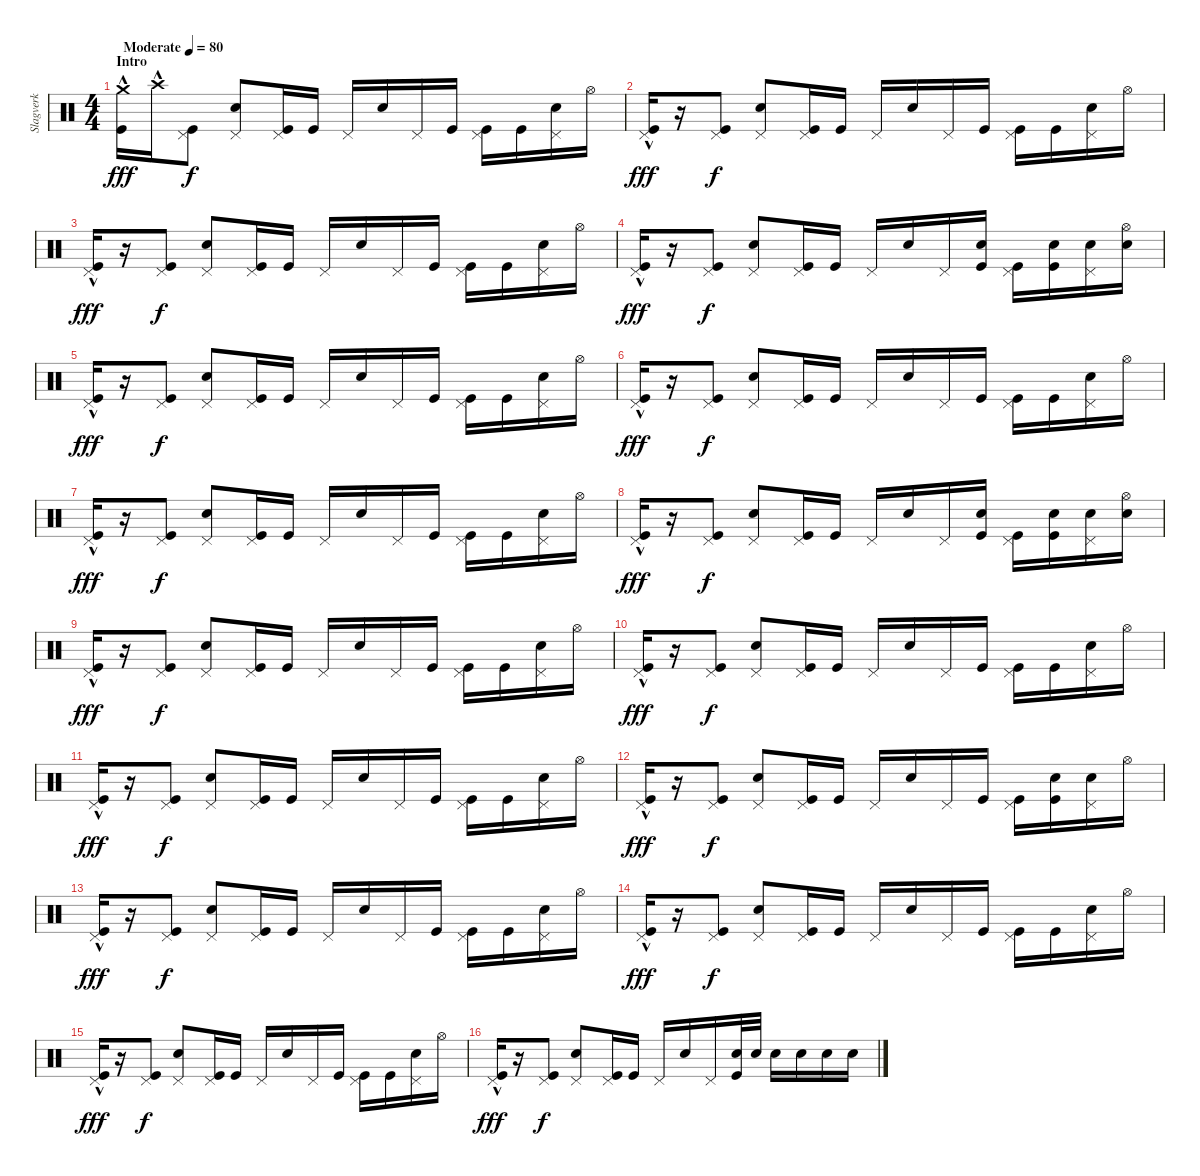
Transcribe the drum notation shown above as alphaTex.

\track ("Slagverk" "Slagverk") {instrument percussion}
\staff {score}
\articulation defaults
\ts (4 4)
\section ("" "Intro")
\tempo (80 "Moderate")
\clef neutral
\ks c
("Crash medium (hit)"{hac} "Kick (hit)").16{dy fff} "Crash high (hit)"{hac}.16 ("Pedal Hi-Hat (hit)" "Kick (hit)").8{dy f} ("Pedal Hi-Hat (hit)" "Snare (hit) 2").8 ("Pedal Hi-Hat (hit)" "Kick (hit)").16 "Kick (hit)".16 "Pedal Hi-Hat (hit)".16 "Snare (hit) 2".16 "Pedal Hi-Hat (hit)".16 "Kick (hit)".16 ("Pedal Hi-Hat (hit)" "Kick (hit)").16 "Kick (hit)".16 ("Pedal Hi-Hat (hit)" "Snare (hit) 2").16 "Hi-Hat (open)".16 |
("Pedal Hi-Hat (hit)"{hac} "Kick (hit)").16{dy fff} r.16 ("Pedal Hi-Hat (hit)" "Kick (hit)").8{dy f} ("Pedal Hi-Hat (hit)" "Snare (hit) 2").8 ("Pedal Hi-Hat (hit)" "Kick (hit)").16 "Kick (hit)".16 "Pedal Hi-Hat (hit)".16 "Snare (hit) 2".16 "Pedal Hi-Hat (hit)".16 "Kick (hit)".16 ("Pedal Hi-Hat (hit)" "Kick (hit)").16 "Kick (hit)".16 ("Pedal Hi-Hat (hit)" "Snare (hit) 2").16 "Hi-Hat (open)".16 |
("Pedal Hi-Hat (hit)"{hac} "Kick (hit)").16{dy fff} r.16 ("Pedal Hi-Hat (hit)" "Kick (hit)").8{dy f} ("Pedal Hi-Hat (hit)" "Snare (hit) 2").8 ("Pedal Hi-Hat (hit)" "Kick (hit)").16 "Kick (hit)".16 "Pedal Hi-Hat (hit)".16 "Snare (hit) 2".16 "Pedal Hi-Hat (hit)".16 "Kick (hit)".16 ("Pedal Hi-Hat (hit)" "Kick (hit)").16 "Kick (hit)".16 ("Pedal Hi-Hat (hit)" "Snare (hit) 2").16 "Hi-Hat (open)".16 |
("Pedal Hi-Hat (hit)"{hac} "Kick (hit)").16{dy fff} r.16 ("Pedal Hi-Hat (hit)" "Kick (hit)").8{dy f} ("Pedal Hi-Hat (hit)" "Snare (hit) 2").8 ("Pedal Hi-Hat (hit)" "Kick (hit)").16 "Kick (hit)".16 "Pedal Hi-Hat (hit)".16 "Snare (hit) 2".16 "Pedal Hi-Hat (hit)".16 ("Snare (hit) 2" "Kick (hit)").16 ("Pedal Hi-Hat (hit)" "Kick (hit)").16 ("Snare (hit) 2" "Kick (hit)").16 ("Pedal Hi-Hat (hit)" "Snare (hit) 2").16 ("Hi-Hat (open)" "Snare (hit) 2").16 |
("Pedal Hi-Hat (hit)"{hac} "Kick (hit)").16{dy fff} r.16 ("Pedal Hi-Hat (hit)" "Kick (hit)").8{dy f} ("Pedal Hi-Hat (hit)" "Snare (hit) 2").8 ("Pedal Hi-Hat (hit)" "Kick (hit)").16 "Kick (hit)".16 "Pedal Hi-Hat (hit)".16 "Snare (hit) 2".16 "Pedal Hi-Hat (hit)".16 "Kick (hit)".16 ("Pedal Hi-Hat (hit)" "Kick (hit)").16 "Kick (hit)".16 ("Pedal Hi-Hat (hit)" "Snare (hit) 2").16 "Hi-Hat (open)".16 |
("Pedal Hi-Hat (hit)"{hac} "Kick (hit)").16{dy fff} r.16 ("Pedal Hi-Hat (hit)" "Kick (hit)").8{dy f} ("Pedal Hi-Hat (hit)" "Snare (hit) 2").8 ("Pedal Hi-Hat (hit)" "Kick (hit)").16 "Kick (hit)".16 "Pedal Hi-Hat (hit)".16 "Snare (hit) 2".16 "Pedal Hi-Hat (hit)".16 "Kick (hit)".16 ("Pedal Hi-Hat (hit)" "Kick (hit)").16 "Kick (hit)".16 ("Pedal Hi-Hat (hit)" "Snare (hit) 2").16 "Hi-Hat (open)".16 |
("Pedal Hi-Hat (hit)"{hac} "Kick (hit)").16{dy fff} r.16 ("Pedal Hi-Hat (hit)" "Kick (hit)").8{dy f} ("Pedal Hi-Hat (hit)" "Snare (hit) 2").8 ("Pedal Hi-Hat (hit)" "Kick (hit)").16 "Kick (hit)".16 "Pedal Hi-Hat (hit)".16 "Snare (hit) 2".16 "Pedal Hi-Hat (hit)".16 "Kick (hit)".16 ("Pedal Hi-Hat (hit)" "Kick (hit)").16 "Kick (hit)".16 ("Pedal Hi-Hat (hit)" "Snare (hit) 2").16 "Hi-Hat (open)".16 |
("Pedal Hi-Hat (hit)"{hac} "Kick (hit)").16{dy fff} r.16 ("Pedal Hi-Hat (hit)" "Kick (hit)").8{dy f} ("Pedal Hi-Hat (hit)" "Snare (hit) 2").8 ("Pedal Hi-Hat (hit)" "Kick (hit)").16 "Kick (hit)".16 "Pedal Hi-Hat (hit)".16 "Snare (hit) 2".16 "Pedal Hi-Hat (hit)".16 ("Snare (hit) 2" "Kick (hit)").16 ("Pedal Hi-Hat (hit)" "Kick (hit)").16 ("Snare (hit) 2" "Kick (hit)").16 ("Pedal Hi-Hat (hit)" "Snare (hit) 2").16 ("Hi-Hat (open)" "Snare (hit) 2").16 |
("Pedal Hi-Hat (hit)"{hac} "Kick (hit)").16{dy fff} r.16 ("Pedal Hi-Hat (hit)" "Kick (hit)").8{dy f} ("Pedal Hi-Hat (hit)" "Snare (hit) 2").8 ("Pedal Hi-Hat (hit)" "Kick (hit)").16 "Kick (hit)".16 "Pedal Hi-Hat (hit)".16 "Snare (hit) 2".16 "Pedal Hi-Hat (hit)".16 "Kick (hit)".16 ("Pedal Hi-Hat (hit)" "Kick (hit)").16 "Kick (hit)".16 ("Pedal Hi-Hat (hit)" "Snare (hit) 2").16 "Hi-Hat (open)".16 |
("Pedal Hi-Hat (hit)"{hac} "Kick (hit)").16{dy fff} r.16 ("Pedal Hi-Hat (hit)" "Kick (hit)").8{dy f} ("Pedal Hi-Hat (hit)" "Snare (hit) 2").8 ("Pedal Hi-Hat (hit)" "Kick (hit)").16 "Kick (hit)".16 "Pedal Hi-Hat (hit)".16 "Snare (hit) 2".16 "Pedal Hi-Hat (hit)".16 "Kick (hit)".16 ("Pedal Hi-Hat (hit)" "Kick (hit)").16 "Kick (hit)".16 ("Pedal Hi-Hat (hit)" "Snare (hit) 2").16 "Hi-Hat (open)".16 |
("Pedal Hi-Hat (hit)"{hac} "Kick (hit)").16{dy fff} r.16 ("Pedal Hi-Hat (hit)" "Kick (hit)").8{dy f} ("Pedal Hi-Hat (hit)" "Snare (hit) 2").8 ("Pedal Hi-Hat (hit)" "Kick (hit)").16 "Kick (hit)".16 "Pedal Hi-Hat (hit)".16 "Snare (hit) 2".16 "Pedal Hi-Hat (hit)".16 "Kick (hit)".16 ("Pedal Hi-Hat (hit)" "Kick (hit)").16 "Kick (hit)".16 ("Pedal Hi-Hat (hit)" "Snare (hit) 2").16 "Hi-Hat (open)".16 |
("Pedal Hi-Hat (hit)"{hac} "Kick (hit)").16{dy fff} r.16 ("Pedal Hi-Hat (hit)" "Kick (hit)").8{dy f} ("Pedal Hi-Hat (hit)" "Snare (hit) 2").8 ("Pedal Hi-Hat (hit)" "Kick (hit)").16 "Kick (hit)".16 "Pedal Hi-Hat (hit)".16 "Snare (hit) 2".16 "Pedal Hi-Hat (hit)".16 "Kick (hit)".16 ("Pedal Hi-Hat (hit)" "Kick (hit)").16 ("Snare (hit) 2" "Kick (hit)").16 ("Pedal Hi-Hat (hit)" "Snare (hit) 2").16 "Hi-Hat (open)".16 |
("Pedal Hi-Hat (hit)"{hac} "Kick (hit)").16{dy fff} r.16 ("Pedal Hi-Hat (hit)" "Kick (hit)").8{dy f} ("Pedal Hi-Hat (hit)" "Snare (hit) 2").8 ("Pedal Hi-Hat (hit)" "Kick (hit)").16 "Kick (hit)".16 "Pedal Hi-Hat (hit)".16 "Snare (hit) 2".16 "Pedal Hi-Hat (hit)".16 "Kick (hit)".16 ("Pedal Hi-Hat (hit)" "Kick (hit)").16 "Kick (hit)".16 ("Pedal Hi-Hat (hit)" "Snare (hit) 2").16 "Hi-Hat (open)".16 |
("Pedal Hi-Hat (hit)"{hac} "Kick (hit)").16{dy fff} r.16 ("Pedal Hi-Hat (hit)" "Kick (hit)").8{dy f} ("Pedal Hi-Hat (hit)" "Snare (hit) 2").8 ("Pedal Hi-Hat (hit)" "Kick (hit)").16 "Kick (hit)".16 "Pedal Hi-Hat (hit)".16 "Snare (hit) 2".16 "Pedal Hi-Hat (hit)".16 "Kick (hit)".16 ("Pedal Hi-Hat (hit)" "Kick (hit)").16 "Kick (hit)".16 ("Pedal Hi-Hat (hit)" "Snare (hit) 2").16 "Hi-Hat (open)".16 |
("Pedal Hi-Hat (hit)"{hac} "Kick (hit)").16{dy fff} r.16 ("Pedal Hi-Hat (hit)" "Kick (hit)").8{dy f} ("Pedal Hi-Hat (hit)" "Snare (hit) 2").8 ("Pedal Hi-Hat (hit)" "Kick (hit)").16 "Kick (hit)".16 "Pedal Hi-Hat (hit)".16 "Snare (hit) 2".16 "Pedal Hi-Hat (hit)".16 "Kick (hit)".16 ("Pedal Hi-Hat (hit)" "Kick (hit)").16 "Kick (hit)".16 ("Pedal Hi-Hat (hit)" "Snare (hit) 2").16 "Hi-Hat (open)".16 |
("Pedal Hi-Hat (hit)"{hac} "Kick (hit)").16{dy fff} r.16 ("Pedal Hi-Hat (hit)" "Kick (hit)").8{dy f} ("Pedal Hi-Hat (hit)" "Snare (hit) 2").8 ("Pedal Hi-Hat (hit)" "Kick (hit)").16 "Kick (hit)".16 "Pedal Hi-Hat (hit)".16 "Snare (hit) 2".16 "Pedal Hi-Hat (hit)".16 ("Snare (hit) 2" "Kick (hit)").32 "Snare (hit) 2".32 "Snare (hit) 2".16 "Snare (hit) 2".16 "Snare (hit) 2".16 "Snare (hit) 2".16
